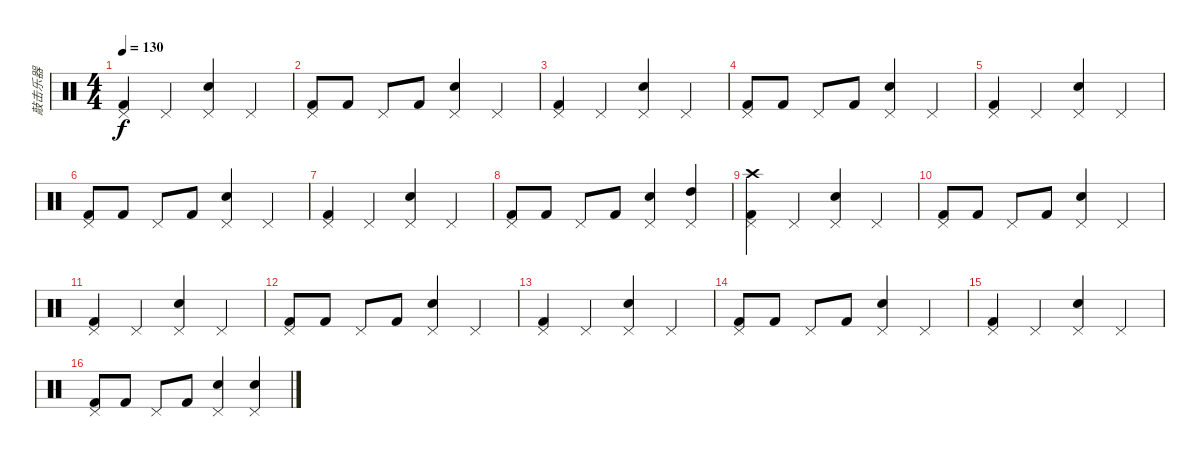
\track ("敲击乐器" "敲击乐器") {instrument percussion}
\staff {score}
\articulation defaults
\ts (4 4)
\tempo 130
\clef neutral
\ks c
("Kick (hit) 2" "Pedal Hi-Hat (hit)").4{dy f} "Pedal Hi-Hat (hit)".4 ("Pedal Hi-Hat (hit)" "Electric Snare (hit)").4 "Pedal Hi-Hat (hit)".4 |
("Pedal Hi-Hat (hit)" "Kick (hit) 2").8 "Kick (hit) 2".8 "Pedal Hi-Hat (hit)".8 "Kick (hit) 2".8 ("Pedal Hi-Hat (hit)" "Electric Snare (hit)").4 "Pedal Hi-Hat (hit)".4 |
("Kick (hit) 2" "Pedal Hi-Hat (hit)").4 "Pedal Hi-Hat (hit)".4 ("Pedal Hi-Hat (hit)" "Electric Snare (hit)").4 "Pedal Hi-Hat (hit)".4 |
("Pedal Hi-Hat (hit)" "Kick (hit) 2").8 "Kick (hit) 2".8 "Pedal Hi-Hat (hit)".8 "Kick (hit) 2".8 ("Pedal Hi-Hat (hit)" "Electric Snare (hit)").4 "Pedal Hi-Hat (hit)".4 |
("Kick (hit) 2" "Pedal Hi-Hat (hit)").4 "Pedal Hi-Hat (hit)".4 ("Pedal Hi-Hat (hit)" "Electric Snare (hit)").4 "Pedal Hi-Hat (hit)".4 |
("Pedal Hi-Hat (hit)" "Kick (hit) 2").8 "Kick (hit) 2".8 "Pedal Hi-Hat (hit)".8 "Kick (hit) 2".8 ("Pedal Hi-Hat (hit)" "Electric Snare (hit)").4 "Pedal Hi-Hat (hit)".4 |
("Kick (hit) 2" "Pedal Hi-Hat (hit)").4 "Pedal Hi-Hat (hit)".4 ("Pedal Hi-Hat (hit)" "Electric Snare (hit)").4 "Pedal Hi-Hat (hit)".4 |
("Pedal Hi-Hat (hit)" "Kick (hit) 2").8 "Kick (hit) 2".8 "Pedal Hi-Hat (hit)".8 "Kick (hit) 2".8 ("Pedal Hi-Hat (hit)" "Electric Snare (hit)").4 ("Pedal Hi-Hat (hit)" "High Tom (hit)").4 |
("Crash high (hit)" "Kick (hit) 2" "Pedal Hi-Hat (hit)").4 "Pedal Hi-Hat (hit)".4 ("Pedal Hi-Hat (hit)" "Electric Snare (hit)").4 "Pedal Hi-Hat (hit)".4 |
("Pedal Hi-Hat (hit)" "Kick (hit) 2").8 "Kick (hit) 2".8 "Pedal Hi-Hat (hit)".8 "Kick (hit) 2".8 ("Pedal Hi-Hat (hit)" "Electric Snare (hit)").4 "Pedal Hi-Hat (hit)".4 |
("Kick (hit) 2" "Pedal Hi-Hat (hit)").4 "Pedal Hi-Hat (hit)".4 ("Pedal Hi-Hat (hit)" "Electric Snare (hit)").4 "Pedal Hi-Hat (hit)".4 |
("Pedal Hi-Hat (hit)" "Kick (hit) 2").8 "Kick (hit) 2".8 "Pedal Hi-Hat (hit)".8 "Kick (hit) 2".8 ("Pedal Hi-Hat (hit)" "Electric Snare (hit)").4 "Pedal Hi-Hat (hit)".4 |
("Kick (hit) 2" "Pedal Hi-Hat (hit)").4 "Pedal Hi-Hat (hit)".4 ("Pedal Hi-Hat (hit)" "Electric Snare (hit)").4 "Pedal Hi-Hat (hit)".4 |
("Pedal Hi-Hat (hit)" "Kick (hit) 2").8 "Kick (hit) 2".8 "Pedal Hi-Hat (hit)".8 "Kick (hit) 2".8 ("Pedal Hi-Hat (hit)" "Electric Snare (hit)").4 "Pedal Hi-Hat (hit)".4 |
("Kick (hit) 2" "Pedal Hi-Hat (hit)").4 "Pedal Hi-Hat (hit)".4 ("Pedal Hi-Hat (hit)" "Electric Snare (hit)").4 "Pedal Hi-Hat (hit)".4 |
("Pedal Hi-Hat (hit)" "Kick (hit) 2").8 "Kick (hit) 2".8 "Pedal Hi-Hat (hit)".8 "Kick (hit) 2".8 ("Pedal Hi-Hat (hit)" "Electric Snare (hit)").4 ("Pedal Hi-Hat (hit)" "Electric Snare (hit)").4
